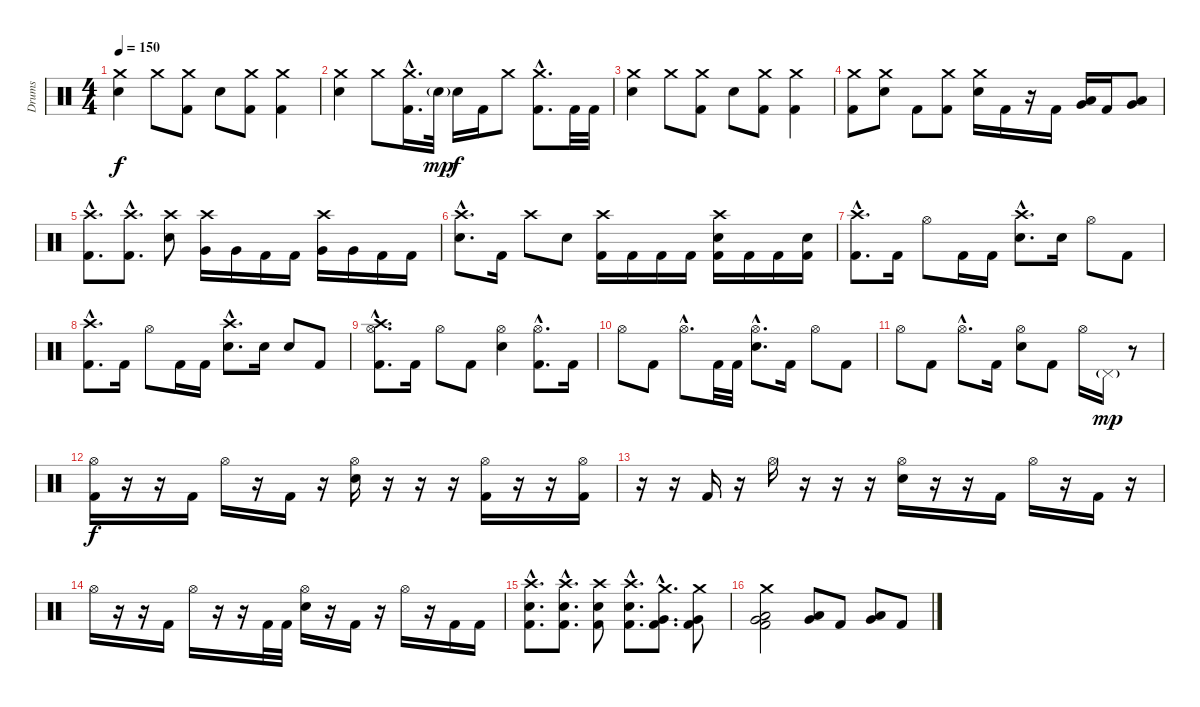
\track ("Drums" "Drums") {instrument percussion}
\staff {score}
\articulation defaults
\ts (4 4)
\tempo 150
\clef neutral
\ks c
("Crash medium (hit)" "Snare (hit) 2").4{dy f} "Crash medium (hit)".8 ("Crash medium (hit)" "Kick (hit) 2").8 "Snare (hit) 2".8 ("Crash medium (hit)" "Kick (hit) 2").8 ("Crash medium (hit)" "Kick (hit) 2").4 |
("Crash medium (hit)" "Snare (hit) 2").4 "Crash medium (hit)".8 ("Crash medium (hit)"{hac} "Kick (hit) 2"{hac}).16{d} "Snare (hit) 2"{g}.32{dy mp} "Snare (hit) 2".16{dy f} "Kick (hit) 2".16 "Crash medium (hit)".8 ("Crash medium (hit)"{hac} "Kick (hit) 2"{hac}).8{d} "Kick (hit) 2".32 "Kick (hit) 2".32 |
("Crash medium (hit)" "Snare (hit) 2").4 "Crash medium (hit)".8 ("Crash medium (hit)" "Kick (hit) 2").8 "Snare (hit) 2".8 ("Crash medium (hit)" "Kick (hit) 2").8 ("Crash medium (hit)" "Kick (hit) 2").4 |
("Crash medium (hit)" "Kick (hit) 2").8 ("Crash medium (hit)" "Snare (hit) 2").8 "Kick (hit) 2".8 ("Crash medium (hit)" "Kick (hit) 2").8 ("Crash medium (hit)" "Snare (hit) 2").16 "Kick (hit) 2".16 r.16 "Kick (hit) 2".16 ("Very Low Tom (hit)" "Low Tom (hit)").16 "Kick (hit) 2".16 ("Low Floor Tom (hit)" "Very Low Tom (hit)").8 |
("Crash high (hit)"{hac} "Kick (hit) 2"{hac}).8{d} ("Crash high (hit)"{hac} "Kick (hit) 2"{hac}).8{d} ("Crash high (hit)" "Snare (hit) 2").8 ("Crash high (hit)" "Very Low Tom (hit)").16 "Very Low Tom (hit)".16 "Kick (hit) 2".16 "Kick (hit) 2".16 ("Crash high (hit)" "Very Low Tom (hit)").16 "Very Low Tom (hit)".16 "Kick (hit) 2".16 "Kick (hit) 2".16 |
("Crash high (hit)"{hac} "Snare (hit) 2"{hac}).8{d} "Kick (hit) 2".16 "Crash high (hit)".8 "Snare (hit) 2".8 ("Crash high (hit)" "Kick (hit) 2").16 "Kick (hit) 2".16 "Kick (hit) 2".16 "Kick (hit) 2".16 ("Crash high (hit)" "Snare (hit) 2" "Kick (hit) 2").16 "Kick (hit) 2".16 "Kick (hit) 2".16 ("Snare (hit) 2" "Kick (hit) 2").16 |
("Crash high (hit)"{hac} "Kick (hit) 2"{hac}).8{d} "Kick (hit) 2".16 "Hi-Hat (open)".8 "Kick (hit) 2".16 "Kick (hit) 2".16 ("Crash high (hit)"{hac} "Snare (hit) 2"{hac}).8{d} "Snare (hit) 2".16 "Hi-Hat (open)".8 "Kick (hit) 2".8 |
("Crash high (hit)"{hac} "Kick (hit) 2"{hac}).8{d} "Kick (hit) 2".16 "Hi-Hat (open)".8 "Kick (hit) 2".16 "Kick (hit) 2".16 ("Crash high (hit)"{hac} "Snare (hit) 2"{hac}).8{d} "Snare (hit) 2".16 "Snare (hit) 2".8 "Kick (hit) 2".8 |
("Crash high (hit)"{hac} "Hi-Hat (open)"{hac} "Kick (hit) 2"{hac}).8{d} "Kick (hit) 2".16 "Hi-Hat (open)".8 "Kick (hit) 2".8 ("Hi-Hat (open)" "Snare (hit) 2").4 ("Hi-Hat (open)"{hac} "Kick (hit) 2"{hac}).8{d} "Kick (hit) 2".16 |
"Hi-Hat (open)".8 "Kick (hit) 2".8 "Hi-Hat (open)"{hac}.8{d} "Kick (hit) 2".32 "Kick (hit) 2".32 ("Hi-Hat (open)"{hac} "Snare (hit) 2"{hac}).8{d} "Kick (hit) 2".16 "Hi-Hat (open)".8 "Kick (hit) 2".8 |
"Hi-Hat (open)".8 "Kick (hit) 2".8 "Hi-Hat (open)"{hac}.8{d} "Kick (hit) 2".16 ("Hi-Hat (open)" "Snare (hit) 2").8 "Kick (hit) 2".8 "Hi-Hat (open)".16 "Pedal Hi-Hat (hit)"{g}.16{dy mp} r.8 |
("Hi-Hat (open)" "Kick (hit) 2").16{dy f} r.16 r.16 "Kick (hit) 2".16 "Hi-Hat (open)".16 r.16 "Kick (hit) 2".16 r.16 ("Hi-Hat (open)" "Snare (hit) 2").16 r.16 r.16 r.16 ("Hi-Hat (open)" "Kick (hit) 2").16 r.16 r.16 ("Hi-Hat (open)" "Kick (hit) 2").16 |
r.16 r.16 "Kick (hit) 2".16 r.16 "Hi-Hat (open)".16 r.16 r.16 r.16 ("Hi-Hat (open)" "Snare (hit) 2").16 r.16 r.16 "Kick (hit) 2".16 "Hi-Hat (open)".16 r.16 "Kick (hit) 2".16 r.16 |
"Hi-Hat (open)".16 r.16 r.16 "Kick (hit) 2".16 "Hi-Hat (open)".16 r.16 r.16 "Kick (hit) 2".32 "Kick (hit) 2".32 ("Hi-Hat (open)" "Snare (hit) 2").16 r.16 "Kick (hit) 2".16 r.16 "Hi-Hat (open)".16 r.16 "Kick (hit) 2".16 "Kick (hit) 2".16 |
("Crash high (hit)"{hac} "Snare (hit) 2"{hac} "Kick (hit) 2"{hac}).8{d} ("Crash high (hit)"{hac} "Snare (hit) 2"{hac} "Kick (hit) 2"{hac}).8{d} ("Crash high (hit)" "Snare (hit) 2" "Kick (hit) 2").8 ("Crash high (hit)"{hac} "Snare (hit) 2"{hac} "Kick (hit) 2"{hac}).8{d} ("Crash medium (hit)"{hac} "Very Low Tom (hit)"{hac} "Kick (hit) 2"{hac}).8{d} ("Crash medium (hit)" "Very Low Tom (hit)" "Kick (hit) 2").8 |
("Crash medium (hit)" "Low Tom (hit)" "Very Low Tom (hit)" "Kick (hit) 2").2 ("Very Low Tom (hit)" "Low Tom (hit)").8 "Kick (hit) 2".8 ("Low Floor Tom (hit)" "Very Low Tom (hit)").8 "Kick (hit) 2".8
